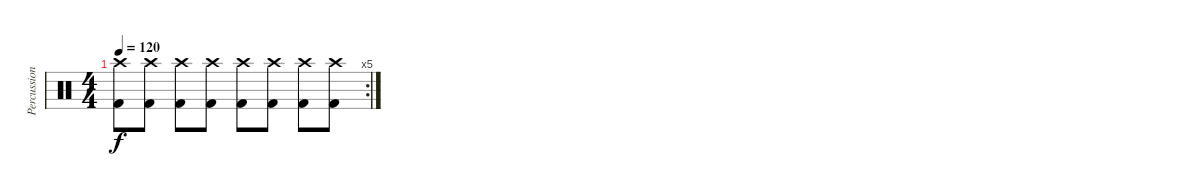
\track ("Percussion" "Percussion") {instrument percussion}
\staff {score}
\articulation defaults
\rc 5
\ts (4 4)
\tempo 120
\clef neutral
\ks c
("Crash high (hit)" "Kick (hit) 2").8{dy f} ("Crash high (hit)" "Kick (hit) 2").8 ("Crash high (hit)" "Kick (hit) 2").8 ("Crash high (hit)" "Kick (hit) 2").8 ("Crash high (hit)" "Kick (hit) 2").8 ("Crash high (hit)" "Kick (hit) 2").8 ("Crash high (hit)" "Kick (hit) 2").8 ("Crash high (hit)" "Kick (hit) 2").8
